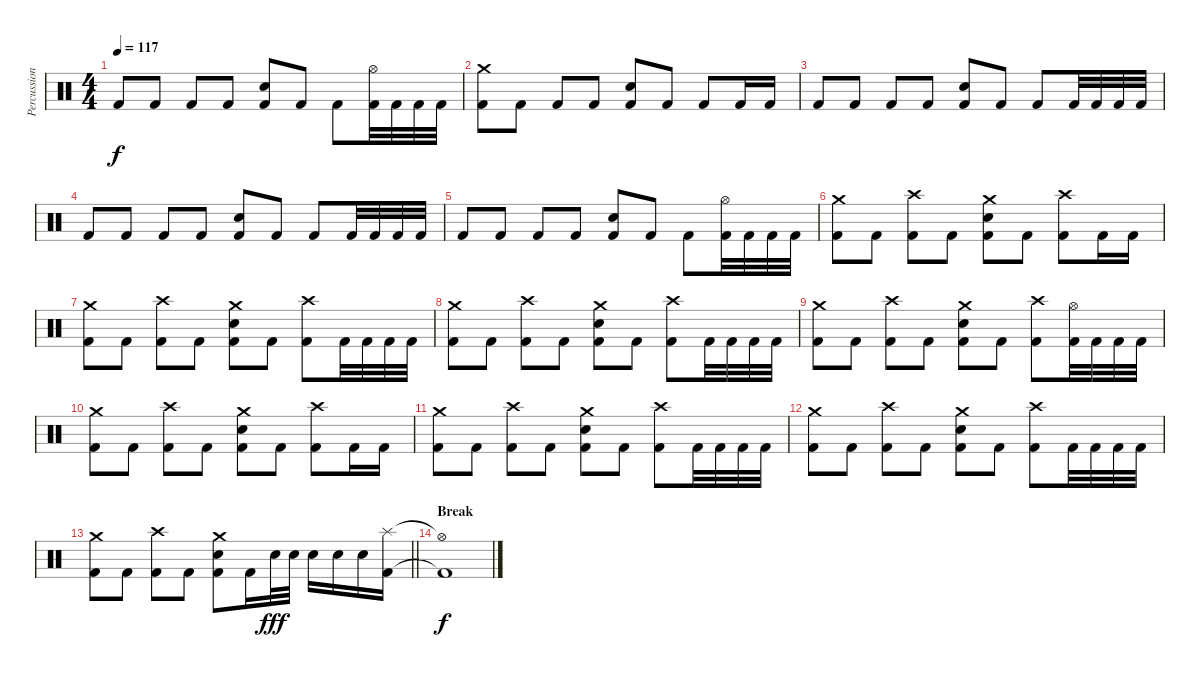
\track ("Percussioni" "Percussion") {instrument percussion}
\staff {score}
\articulation defaults
\ts (4 4)
\tempo 117
\clef neutral
\ks c "Kick (hit) 2".8{dy f} "Kick (hit) 2".8 "Kick (hit) 2".8 "Kick (hit) 2".8
("Electric Snare (hit)" "Kick (hit) 2").8 "Kick (hit) 2".8 "Kick (hit) 2".8 ("Hi-Hat (open)" "Kick (hit) 2").32 "Kick (hit) 2".32 "Kick (hit) 2".32 "Kick (hit) 2".32 |
("Crash medium (hit)" "Kick (hit) 2").8 "Kick (hit) 2".8 "Kick (hit) 2".8 "Kick (hit) 2".8 ("Electric Snare (hit)" "Kick (hit) 2").8 "Kick (hit) 2".8 "Kick (hit) 2".8 "Kick (hit) 2".16 "Kick (hit) 2".16 |
"Kick (hit) 2".8 "Kick (hit) 2".8 "Kick (hit) 2".8 "Kick (hit) 2".8 ("Electric Snare (hit)" "Kick (hit) 2").8 "Kick (hit) 2".8 "Kick (hit) 2".8 "Kick (hit) 2".32 "Kick (hit) 2".32 "Kick (hit) 2".32 "Kick (hit) 2".32 |
"Kick (hit) 2".8 "Kick (hit) 2".8 "Kick (hit) 2".8 "Kick (hit) 2".8 ("Electric Snare (hit)" "Kick (hit) 2").8 "Kick (hit) 2".8 "Kick (hit) 2".8 "Kick (hit) 2".32 "Kick (hit) 2".32 "Kick (hit) 2".32 "Kick (hit) 2".32 |
"Kick (hit) 2".8 "Kick (hit) 2".8 "Kick (hit) 2".8 "Kick (hit) 2".8 ("Electric Snare (hit)" "Kick (hit) 2").8 "Kick (hit) 2".8 "Kick (hit) 2".8 ("Hi-Hat (open)" "Kick (hit) 2").32 "Kick (hit) 2".32 "Kick (hit) 2".32 "Kick (hit) 2".32 |
("Crash medium (hit)" "Kick (hit) 2").8 "Kick (hit) 2".8 ("Crash high (hit)" "Kick (hit) 2").8 "Kick (hit) 2".8 ("Crash medium (hit)" "Electric Snare (hit)" "Kick (hit) 2").8 "Kick (hit) 2".8 ("Crash high (hit)" "Kick (hit) 2").8 "Kick (hit) 2".16 "Kick (hit) 2".16 |
("Crash medium (hit)" "Kick (hit) 2").8 "Kick (hit) 2".8 ("Crash high (hit)" "Kick (hit) 2").8 "Kick (hit) 2".8 ("Crash medium (hit)" "Electric Snare (hit)" "Kick (hit) 2").8 "Kick (hit) 2".8 ("Crash high (hit)" "Kick (hit) 2").8 "Kick (hit) 2".32 "Kick (hit) 2".32 "Kick (hit) 2".32 "Kick (hit) 2".32 |
("Crash medium (hit)" "Kick (hit) 2").8 "Kick (hit) 2".8 ("Crash high (hit)" "Kick (hit) 2").8 "Kick (hit) 2".8 ("Crash medium (hit)" "Electric Snare (hit)" "Kick (hit) 2").8 "Kick (hit) 2".8 ("Crash high (hit)" "Kick (hit) 2").8 "Kick (hit) 2".32 "Kick (hit) 2".32 "Kick (hit) 2".32 "Kick (hit) 2".32 |
("Crash medium (hit)" "Kick (hit) 2").8 "Kick (hit) 2".8 ("Crash high (hit)" "Kick (hit) 2").8 "Kick (hit) 2".8 ("Crash medium (hit)" "Electric Snare (hit)" "Kick (hit) 2").8 "Kick (hit) 2".8 ("Crash high (hit)" "Kick (hit) 2").8 ("Hi-Hat (open)" "Kick (hit) 2").32 "Kick (hit) 2".32 "Kick (hit) 2".32 "Kick (hit) 2".32 |
("Crash medium (hit)" "Kick (hit) 2").8 "Kick (hit) 2".8 ("Crash high (hit)" "Kick (hit) 2").8 "Kick (hit) 2".8 ("Crash medium (hit)" "Electric Snare (hit)" "Kick (hit) 2").8 "Kick (hit) 2".8 ("Crash high (hit)" "Kick (hit) 2").8 "Kick (hit) 2".16 "Kick (hit) 2".16 |
("Crash medium (hit)" "Kick (hit) 2").8 "Kick (hit) 2".8 ("Crash high (hit)" "Kick (hit) 2").8 "Kick (hit) 2".8 ("Crash medium (hit)" "Electric Snare (hit)" "Kick (hit) 2").8 "Kick (hit) 2".8 ("Crash high (hit)" "Kick (hit) 2").8 "Kick (hit) 2".32 "Kick (hit) 2".32 "Kick (hit) 2".32 "Kick (hit) 2".32 |
("Crash medium (hit)" "Kick (hit) 2").8 "Kick (hit) 2".8 ("Crash high (hit)" "Kick (hit) 2").8 "Kick (hit) 2".8 ("Crash medium (hit)" "Electric Snare (hit)" "Kick (hit) 2").8 "Kick (hit) 2".8 ("Crash high (hit)" "Kick (hit) 2").8 "Kick (hit) 2".32 "Kick (hit) 2".32 "Kick (hit) 2".32 "Kick (hit) 2".32 |
\barLineRight lightlight
("Crash medium (hit)" "Kick (hit) 2").8 "Kick (hit) 2".8 ("Crash high (hit)" "Kick (hit) 2").8 "Kick (hit) 2".8 ("Crash medium (hit)" "Electric Snare (hit)" "Kick (hit) 2").8 "Kick (hit) 2".16 "Electric Snare (hit)".32{dy fff} "Electric Snare (hit)".32 "Electric Snare (hit)".16 "Electric Snare (hit)".16 "Electric Snare (hit)".16 ("Splash (hit)" "Kick (hit) 2").16 |
\section ("" "Break")
("Hi-Hat (open)"{t} "Kick (hit) 2"{t}).1{dy f}
